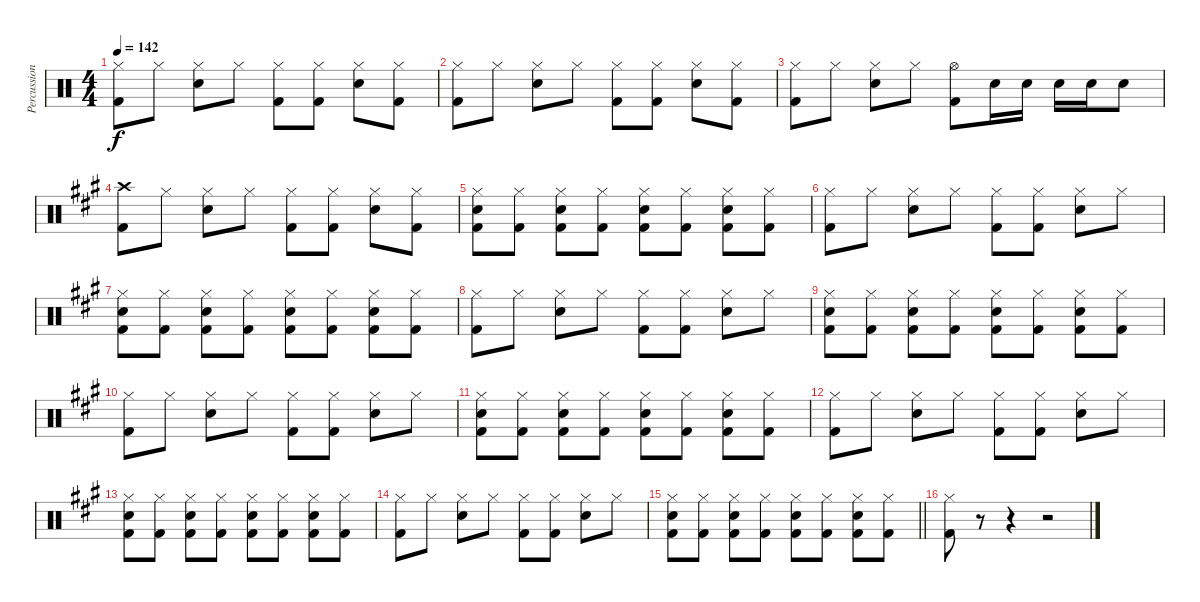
\track ("Percussion" "Percussion") {instrument percussion}
\staff {score}
\articulation defaults
\ts (4 4)
\tempo 142
\clef neutral
\ks c
("Hi-Hat (closed)" "Kick (hit) 2").8{dy f} "Hi-Hat (closed)".8 ("Hi-Hat (closed)" "Snare (hit) 2").8 "Hi-Hat (closed)".8 ("Hi-Hat (closed)" "Kick (hit) 2").8 ("Hi-Hat (closed)" "Kick (hit) 2").8 ("Hi-Hat (closed)" "Snare (hit) 2").8 ("Hi-Hat (closed)" "Kick (hit) 2").8 |
("Hi-Hat (closed)" "Kick (hit) 2").8 "Hi-Hat (closed)".8 ("Hi-Hat (closed)" "Snare (hit) 2").8 "Hi-Hat (closed)".8 ("Hi-Hat (closed)" "Kick (hit) 2").8 ("Hi-Hat (closed)" "Kick (hit) 2").8 ("Hi-Hat (closed)" "Snare (hit) 2").8 ("Hi-Hat (closed)" "Kick (hit) 2").8 |
("Hi-Hat (closed)" "Kick (hit) 2").8 "Hi-Hat (closed)".8 ("Hi-Hat (closed)" "Snare (hit) 2").8 "Hi-Hat (closed)".8 ("Hi-Hat (open)" "Kick (hit) 2").8 "Snare (hit) 2".16 "Snare (hit) 2".16 "Snare (hit) 2".16 "Snare (hit) 2".16 "Snare (hit) 2".8 |
\ks a
("Crash high (hit)" "Kick (hit) 2").8 "Hi-Hat (closed)".8 ("Hi-Hat (closed)" "Snare (hit) 2").8 "Hi-Hat (closed)".8 ("Hi-Hat (closed)" "Kick (hit) 2").8 ("Hi-Hat (closed)" "Kick (hit) 2").8 ("Hi-Hat (closed)" "Snare (hit) 2").8 ("Hi-Hat (closed)" "Kick (hit) 2").8 |
("Hi-Hat (closed)" "Snare (hit) 2" "Kick (hit) 2").8 ("Hi-Hat (closed)" "Kick (hit) 2").8 ("Hi-Hat (closed)" "Snare (hit) 2" "Kick (hit) 2").8 ("Hi-Hat (closed)" "Kick (hit) 2").8 ("Hi-Hat (closed)" "Snare (hit) 2" "Kick (hit) 2").8 ("Hi-Hat (closed)" "Kick (hit) 2").8 ("Hi-Hat (closed)" "Snare (hit) 2" "Kick (hit) 2").8 ("Hi-Hat (closed)" "Kick (hit) 2").8 |
("Hi-Hat (closed)" "Kick (hit) 2").8 "Hi-Hat (closed)".8 ("Hi-Hat (closed)" "Snare (hit) 2").8 "Hi-Hat (closed)".8 ("Hi-Hat (closed)" "Kick (hit) 2").8 ("Hi-Hat (closed)" "Kick (hit) 2").8 ("Hi-Hat (closed)" "Snare (hit) 2").8 "Hi-Hat (closed)".8 |
("Hi-Hat (closed)" "Snare (hit) 2" "Kick (hit) 2").8 ("Hi-Hat (closed)" "Kick (hit) 2").8 ("Hi-Hat (closed)" "Snare (hit) 2" "Kick (hit) 2").8 ("Hi-Hat (closed)" "Kick (hit) 2").8 ("Hi-Hat (closed)" "Snare (hit) 2" "Kick (hit) 2").8 ("Hi-Hat (closed)" "Kick (hit) 2").8 ("Hi-Hat (closed)" "Snare (hit) 2" "Kick (hit) 2").8 ("Hi-Hat (closed)" "Kick (hit) 2").8 |
("Hi-Hat (closed)" "Kick (hit) 2").8 "Hi-Hat (closed)".8 ("Hi-Hat (closed)" "Snare (hit) 2").8 "Hi-Hat (closed)".8 ("Hi-Hat (closed)" "Kick (hit) 2").8 ("Hi-Hat (closed)" "Kick (hit) 2").8 ("Hi-Hat (closed)" "Snare (hit) 2").8 "Hi-Hat (closed)".8 |
("Hi-Hat (closed)" "Snare (hit) 2" "Kick (hit) 2").8 ("Hi-Hat (closed)" "Kick (hit) 2").8 ("Hi-Hat (closed)" "Snare (hit) 2" "Kick (hit) 2").8 ("Hi-Hat (closed)" "Kick (hit) 2").8 ("Hi-Hat (closed)" "Snare (hit) 2" "Kick (hit) 2").8 ("Hi-Hat (closed)" "Kick (hit) 2").8 ("Hi-Hat (closed)" "Snare (hit) 2" "Kick (hit) 2").8 ("Hi-Hat (closed)" "Kick (hit) 2").8 |
("Hi-Hat (closed)" "Kick (hit) 2").8 "Hi-Hat (closed)".8 ("Hi-Hat (closed)" "Snare (hit) 2").8 "Hi-Hat (closed)".8 ("Hi-Hat (closed)" "Kick (hit) 2").8 ("Hi-Hat (closed)" "Kick (hit) 2").8 ("Hi-Hat (closed)" "Snare (hit) 2").8 "Hi-Hat (closed)".8 |
("Hi-Hat (closed)" "Snare (hit) 2" "Kick (hit) 2").8 ("Hi-Hat (closed)" "Kick (hit) 2").8 ("Hi-Hat (closed)" "Snare (hit) 2" "Kick (hit) 2").8 ("Hi-Hat (closed)" "Kick (hit) 2").8 ("Hi-Hat (closed)" "Snare (hit) 2" "Kick (hit) 2").8 ("Hi-Hat (closed)" "Kick (hit) 2").8 ("Hi-Hat (closed)" "Snare (hit) 2" "Kick (hit) 2").8 ("Hi-Hat (closed)" "Kick (hit) 2").8 |
("Hi-Hat (closed)" "Kick (hit) 2").8 "Hi-Hat (closed)".8 ("Hi-Hat (closed)" "Snare (hit) 2").8 "Hi-Hat (closed)".8 ("Hi-Hat (closed)" "Kick (hit) 2").8 ("Hi-Hat (closed)" "Kick (hit) 2").8 ("Hi-Hat (closed)" "Snare (hit) 2").8 "Hi-Hat (closed)".8 |
("Hi-Hat (closed)" "Snare (hit) 2" "Kick (hit) 2").8 ("Hi-Hat (closed)" "Kick (hit) 2").8 ("Hi-Hat (closed)" "Snare (hit) 2" "Kick (hit) 2").8 ("Hi-Hat (closed)" "Kick (hit) 2").8 ("Hi-Hat (closed)" "Snare (hit) 2" "Kick (hit) 2").8 ("Hi-Hat (closed)" "Kick (hit) 2").8 ("Hi-Hat (closed)" "Snare (hit) 2" "Kick (hit) 2").8 ("Hi-Hat (closed)" "Kick (hit) 2").8 |
("Hi-Hat (closed)" "Kick (hit) 2").8 "Hi-Hat (closed)".8 ("Hi-Hat (closed)" "Snare (hit) 2").8 "Hi-Hat (closed)".8 ("Hi-Hat (closed)" "Kick (hit) 2").8 ("Hi-Hat (closed)" "Kick (hit) 2").8 ("Hi-Hat (closed)" "Snare (hit) 2").8 "Hi-Hat (closed)".8 |
\barLineRight lightlight
("Hi-Hat (closed)" "Snare (hit) 2" "Kick (hit) 2").8 ("Hi-Hat (closed)" "Kick (hit) 2").8 ("Hi-Hat (closed)" "Snare (hit) 2" "Kick (hit) 2").8 ("Hi-Hat (closed)" "Kick (hit) 2").8 ("Hi-Hat (closed)" "Snare (hit) 2" "Kick (hit) 2").8 ("Hi-Hat (closed)" "Kick (hit) 2").8 ("Hi-Hat (closed)" "Snare (hit) 2" "Kick (hit) 2").8 ("Hi-Hat (closed)" "Kick (hit) 2").8 |
("Hi-Hat (closed)" "Kick (hit) 2").8 r.8 r.4 r.2
